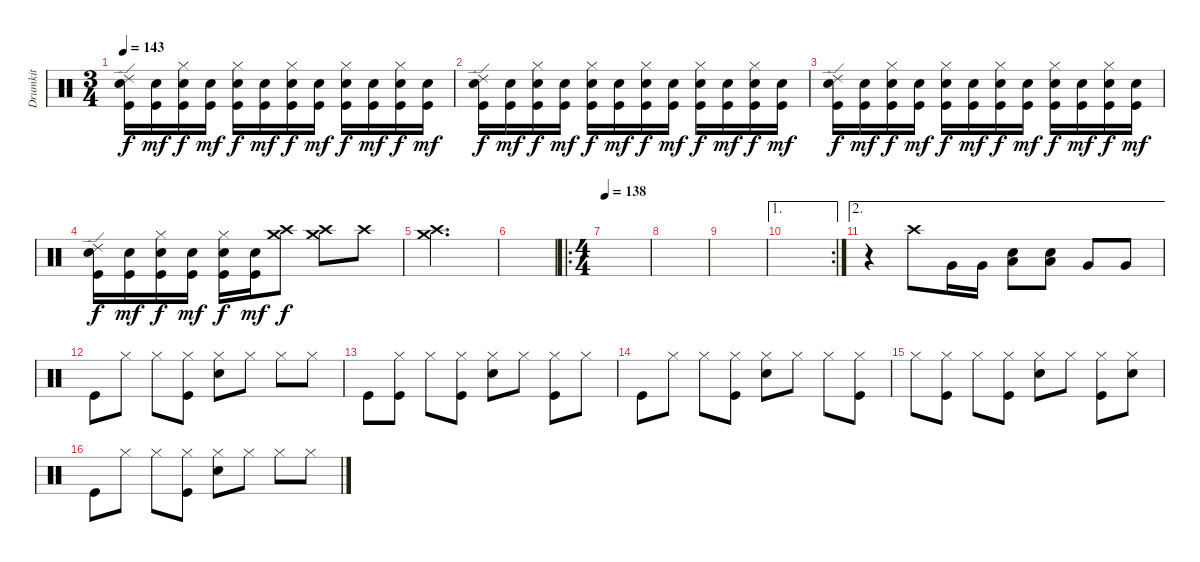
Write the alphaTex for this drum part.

\track ("Drumkit" "Drumkit") {instrument percussion}
\staff {score}
\articulation defaults
\ts (3 4)
\tempo 143
\clef neutral
\ks c
("Kick (hit)" "Snare (hit) 2" "Ride (edge) 2").16{dy f} ("Snare (hit) 2" "Kick (hit)").16{dy mf} ("Kick (hit)" "Snare (hit) 2" "Hi-Hat (closed)").16{dy f} ("Snare (hit) 2" "Kick (hit)").16{dy mf} ("Kick (hit)" "Snare (hit) 2" "Hi-Hat (closed)").16{dy f} ("Snare (hit) 2" "Kick (hit)").16{dy mf} ("Kick (hit)" "Snare (hit) 2" "Hi-Hat (closed)").16{dy f} ("Snare (hit) 2" "Kick (hit)").16{dy mf} ("Kick (hit)" "Snare (hit) 2" "Hi-Hat (closed)").16{dy f} ("Snare (hit) 2" "Kick (hit)").16{dy mf} ("Kick (hit)" "Snare (hit) 2" "Hi-Hat (closed)").16{dy f} ("Snare (hit) 2" "Kick (hit)").16{dy mf} |
("Kick (hit)" "Snare (hit) 2" "Ride (edge) 2").16{dy f} ("Snare (hit) 2" "Kick (hit)").16{dy mf} ("Kick (hit)" "Snare (hit) 2" "Hi-Hat (closed)").16{dy f} ("Snare (hit) 2" "Kick (hit)").16{dy mf} ("Kick (hit)" "Snare (hit) 2" "Hi-Hat (closed)").16{dy f} ("Snare (hit) 2" "Kick (hit)").16{dy mf} ("Kick (hit)" "Snare (hit) 2" "Hi-Hat (closed)").16{dy f} ("Snare (hit) 2" "Kick (hit)").16{dy mf} ("Kick (hit)" "Snare (hit) 2" "Hi-Hat (closed)").16{dy f} ("Snare (hit) 2" "Kick (hit)").16{dy mf} ("Kick (hit)" "Snare (hit) 2" "Hi-Hat (closed)").16{dy f} ("Snare (hit) 2" "Kick (hit)").16{dy mf} |
("Kick (hit)" "Snare (hit) 2" "Ride (edge) 2").16{dy f} ("Snare (hit) 2" "Kick (hit)").16{dy mf} ("Kick (hit)" "Snare (hit) 2" "Hi-Hat (closed)").16{dy f} ("Snare (hit) 2" "Kick (hit)").16{dy mf} ("Kick (hit)" "Snare (hit) 2" "Hi-Hat (closed)").16{dy f} ("Snare (hit) 2" "Kick (hit)").16{dy mf} ("Kick (hit)" "Snare (hit) 2" "Hi-Hat (closed)").16{dy f} ("Snare (hit) 2" "Kick (hit)").16{dy mf} ("Kick (hit)" "Snare (hit) 2" "Hi-Hat (closed)").16{dy f} ("Snare (hit) 2" "Kick (hit)").16{dy mf} ("Kick (hit)" "Snare (hit) 2" "Hi-Hat (closed)").16{dy f} ("Snare (hit) 2" "Kick (hit)").16{dy mf} |
("Kick (hit)" "Snare (hit) 2" "Ride (edge) 2").16{dy f} ("Snare (hit) 2" "Kick (hit)").16{dy mf} ("Kick (hit)" "Snare (hit) 2" "Hi-Hat (closed)").16{dy f} ("Snare (hit) 2" "Kick (hit)").16{dy mf} ("Kick (hit)" "Snare (hit) 2" "Hi-Hat (closed)").16{dy f} ("Snare (hit) 2" "Kick (hit)").16{dy mf} ("Crash high (hit)" "Crash medium (hit)").8{dy f} ("Crash medium (hit)" "Crash high (hit)").8 "Crash high (hit)".8 |
("Crash high (hit)" "Crash medium (hit)").2{d} |
|
\ro
\ts (4 4)
\tempo 138
|
|
|
\ae 1
\rc 2
|
\ae 2
r.4 "Crash high (hit)".8 "Very Low Tom (hit)".16 "Very Low Tom (hit)".16 ("Low Tom (hit)" "Snare (hit) 2").8 ("Low Tom (hit)" "Snare (hit) 2").8 "Very Low Tom (hit)".8 "Very Low Tom (hit)".8 |
"Kick (hit)".8 "Hi-Hat (closed)".8 "Hi-Hat (closed)".8 ("Hi-Hat (closed)" "Kick (hit)").8 ("Snare (hit) 2" "Hi-Hat (closed)").8 "Hi-Hat (closed)".8 "Hi-Hat (closed)".8 "Hi-Hat (closed)".8 |
"Kick (hit)".8 ("Hi-Hat (closed)" "Kick (hit)").8 "Hi-Hat (closed)".8 ("Hi-Hat (closed)" "Kick (hit)").8 ("Hi-Hat (closed)" "Snare (hit) 2").8 "Hi-Hat (closed)".8 ("Kick (hit)" "Hi-Hat (closed)").8 "Hi-Hat (closed)".8 |
"Kick (hit)".8 "Hi-Hat (closed)".8 "Hi-Hat (closed)".8 ("Hi-Hat (closed)" "Kick (hit)").8 ("Snare (hit) 2" "Hi-Hat (closed)").8 "Hi-Hat (closed)".8 "Hi-Hat (closed)".8 ("Hi-Hat (closed)" "Kick (hit)").8 |
"Hi-Hat (closed)".8 ("Hi-Hat (closed)" "Kick (hit)").8 "Hi-Hat (closed)".8 ("Hi-Hat (closed)" "Kick (hit)").8 ("Hi-Hat (closed)" "Snare (hit) 2").8 "Hi-Hat (closed)".8 ("Kick (hit)" "Hi-Hat (closed)").8 ("Hi-Hat (closed)" "Snare (hit) 2").8 |
"Kick (hit)".8 "Hi-Hat (closed)".8 "Hi-Hat (closed)".8 ("Hi-Hat (closed)" "Kick (hit)").8 ("Snare (hit) 2" "Hi-Hat (closed)").8 "Hi-Hat (closed)".8 "Hi-Hat (closed)".8 "Hi-Hat (closed)".8
